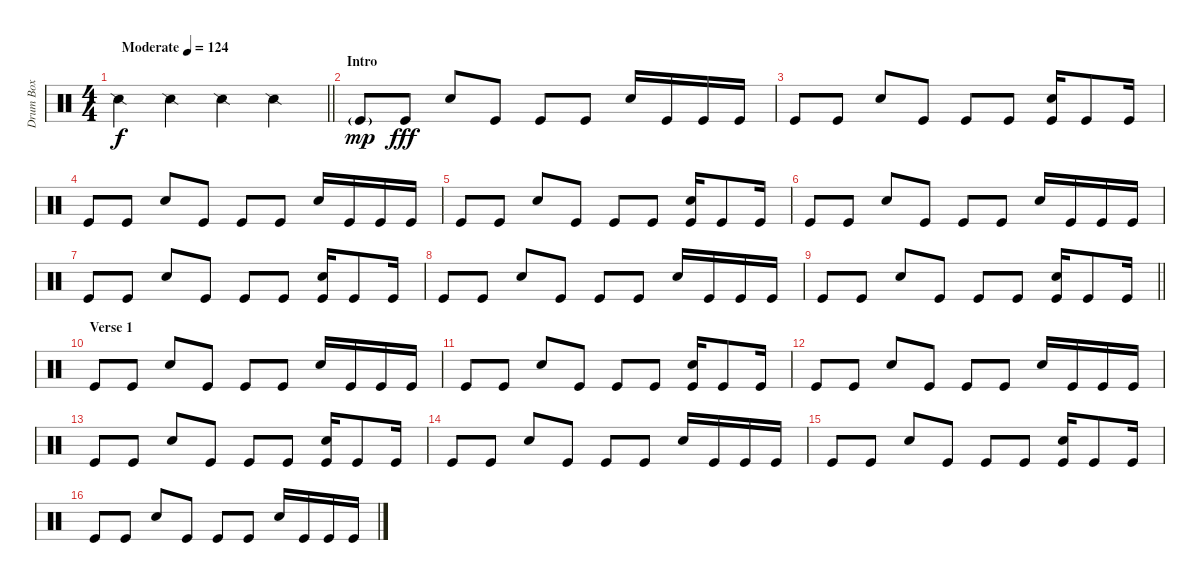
\track ("Drum Box" "Drum Box") {instrument percussion}
\staff {score}
\articulation defaults
\ts (4 4)
\tempo (124 "Moderate")
\clef neutral
\barLineRight lightlight
\ks c "Snare (side stick) 2".4{dy f} "Snare (side stick) 2".4 "Snare (side stick) 2".4 "Snare (side stick) 2".4
|
\section ("" "Intro")
"Kick (hit)"{g}.8{dy mp} "Kick (hit)".8{dy fff} "Snare (hit) 2".8 "Kick (hit)".8 "Kick (hit)".8 "Kick (hit)".8 "Snare (hit) 2".16 "Kick (hit)".16 "Kick (hit)".16 "Kick (hit)".16 |
"Kick (hit)".8 "Kick (hit)".8 "Snare (hit) 2".8 "Kick (hit)".8 "Kick (hit)".8 "Kick (hit)".8 ("Snare (hit) 2" "Kick (hit)").16 "Kick (hit)".8 "Kick (hit)".16 |
"Kick (hit)".8 "Kick (hit)".8 "Snare (hit) 2".8 "Kick (hit)".8 "Kick (hit)".8 "Kick (hit)".8 "Snare (hit) 2".16 "Kick (hit)".16 "Kick (hit)".16 "Kick (hit)".16 |
"Kick (hit)".8 "Kick (hit)".8 "Snare (hit) 2".8 "Kick (hit)".8 "Kick (hit)".8 "Kick (hit)".8 ("Snare (hit) 2" "Kick (hit)").16 "Kick (hit)".8 "Kick (hit)".16 |
"Kick (hit)".8 "Kick (hit)".8 "Snare (hit) 2".8 "Kick (hit)".8 "Kick (hit)".8 "Kick (hit)".8 "Snare (hit) 2".16 "Kick (hit)".16 "Kick (hit)".16 "Kick (hit)".16 |
"Kick (hit)".8 "Kick (hit)".8 "Snare (hit) 2".8 "Kick (hit)".8 "Kick (hit)".8 "Kick (hit)".8 ("Snare (hit) 2" "Kick (hit)").16 "Kick (hit)".8 "Kick (hit)".16 |
"Kick (hit)".8 "Kick (hit)".8 "Snare (hit) 2".8 "Kick (hit)".8 "Kick (hit)".8 "Kick (hit)".8 "Snare (hit) 2".16 "Kick (hit)".16 "Kick (hit)".16 "Kick (hit)".16 |
\barLineRight lightlight "Kick (hit)".8 "Kick (hit)".8 "Snare (hit) 2".8 "Kick (hit)".8 "Kick (hit)".8 "Kick (hit)".8
("Snare (hit) 2" "Kick (hit)").16 "Kick (hit)".8 "Kick (hit)".16 |
\section ("" "Verse 1")
"Kick (hit)".8 "Kick (hit)".8 "Snare (hit) 2".8 "Kick (hit)".8 "Kick (hit)".8 "Kick (hit)".8 "Snare (hit) 2".16 "Kick (hit)".16 "Kick (hit)".16 "Kick (hit)".16 |
"Kick (hit)".8 "Kick (hit)".8 "Snare (hit) 2".8 "Kick (hit)".8 "Kick (hit)".8 "Kick (hit)".8 ("Snare (hit) 2" "Kick (hit)").16 "Kick (hit)".8 "Kick (hit)".16 |
"Kick (hit)".8 "Kick (hit)".8 "Snare (hit) 2".8 "Kick (hit)".8 "Kick (hit)".8 "Kick (hit)".8 "Snare (hit) 2".16 "Kick (hit)".16 "Kick (hit)".16 "Kick (hit)".16 |
"Kick (hit)".8 "Kick (hit)".8 "Snare (hit) 2".8 "Kick (hit)".8 "Kick (hit)".8 "Kick (hit)".8 ("Snare (hit) 2" "Kick (hit)").16 "Kick (hit)".8 "Kick (hit)".16 |
"Kick (hit)".8 "Kick (hit)".8 "Snare (hit) 2".8 "Kick (hit)".8 "Kick (hit)".8 "Kick (hit)".8 "Snare (hit) 2".16 "Kick (hit)".16 "Kick (hit)".16 "Kick (hit)".16 |
"Kick (hit)".8 "Kick (hit)".8 "Snare (hit) 2".8 "Kick (hit)".8 "Kick (hit)".8 "Kick (hit)".8 ("Snare (hit) 2" "Kick (hit)").16 "Kick (hit)".8 "Kick (hit)".16 |
"Kick (hit)".8 "Kick (hit)".8 "Snare (hit) 2".8 "Kick (hit)".8 "Kick (hit)".8 "Kick (hit)".8 "Snare (hit) 2".16 "Kick (hit)".16 "Kick (hit)".16 "Kick (hit)".16
